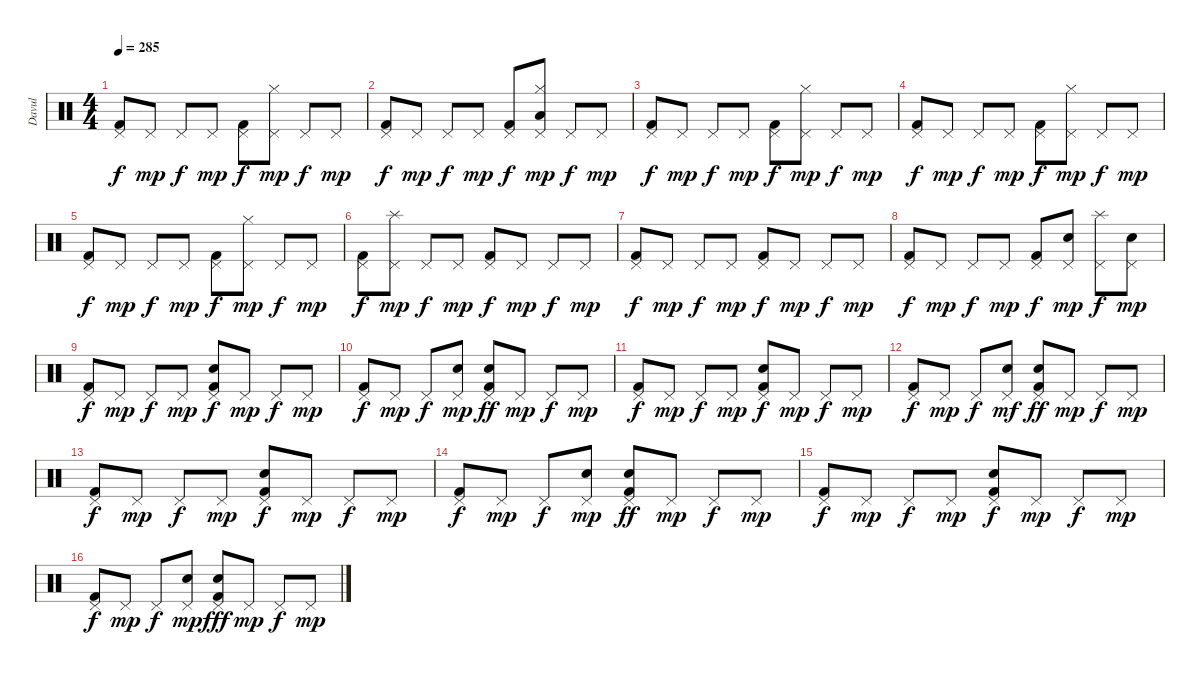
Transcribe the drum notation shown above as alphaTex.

\track ("Davul" "Davul") {instrument percussion}
\staff {score}
\articulation defaults
\ts (4 4)
\tempo 285
\clef neutral
\ks c
("Pedal Hi-Hat (hit)" "Kick (hit) 2").8{dy f} "Pedal Hi-Hat (hit)".8{dy mp} "Pedal Hi-Hat (hit)".8{dy f} "Pedal Hi-Hat (hit)".8{dy mp} ("Pedal Hi-Hat (hit)" "Kick (hit) 2").8{dy f} ("Pedal Hi-Hat (hit)" "Hi-Hat (closed)").8{dy mp} "Pedal Hi-Hat (hit)".8{dy f} "Pedal Hi-Hat (hit)".8{dy mp} |
("Pedal Hi-Hat (hit)" "Kick (hit) 2").8{dy f} "Pedal Hi-Hat (hit)".8{dy mp} "Pedal Hi-Hat (hit)".8{dy f} "Pedal Hi-Hat (hit)".8{dy mp} ("Pedal Hi-Hat (hit)" "Kick (hit) 2").8{dy f} ("Pedal Hi-Hat (hit)" "Hi-Hat (closed)" "Low Floor Tom (hit)").8{dy mp} "Pedal Hi-Hat (hit)".8{dy f} "Pedal Hi-Hat (hit)".8{dy mp} |
("Pedal Hi-Hat (hit)" "Kick (hit) 2").8{dy f} "Pedal Hi-Hat (hit)".8{dy mp} "Pedal Hi-Hat (hit)".8{dy f} "Pedal Hi-Hat (hit)".8{dy mp} ("Pedal Hi-Hat (hit)" "Kick (hit) 2").8{dy f} ("Pedal Hi-Hat (hit)" "Hi-Hat (closed)").8{dy mp} "Pedal Hi-Hat (hit)".8{dy f} "Pedal Hi-Hat (hit)".8{dy mp} |
("Pedal Hi-Hat (hit)" "Kick (hit) 2").8{dy f} "Pedal Hi-Hat (hit)".8{dy mp} "Pedal Hi-Hat (hit)".8{dy f} "Pedal Hi-Hat (hit)".8{dy mp} ("Pedal Hi-Hat (hit)" "Kick (hit) 2").8{dy f} ("Pedal Hi-Hat (hit)" "Hi-Hat (closed)").8{dy mp} "Pedal Hi-Hat (hit)".8{dy f} "Pedal Hi-Hat (hit)".8{dy mp} |
("Pedal Hi-Hat (hit)" "Kick (hit) 2").8{dy f} "Pedal Hi-Hat (hit)".8{dy mp} "Pedal Hi-Hat (hit)".8{dy f} "Pedal Hi-Hat (hit)".8{dy mp} ("Pedal Hi-Hat (hit)" "Kick (hit) 2").8{dy f} ("Pedal Hi-Hat (hit)" "Hi-Hat (closed)").8{dy mp} "Pedal Hi-Hat (hit)".8{dy f} "Pedal Hi-Hat (hit)".8{dy mp} |
("Pedal Hi-Hat (hit)" "Kick (hit) 2").8{dy f} ("Pedal Hi-Hat (hit)" "Splash (hit)").8{dy mp} "Pedal Hi-Hat (hit)".8{dy f} "Pedal Hi-Hat (hit)".8{dy mp} ("Pedal Hi-Hat (hit)" "Kick (hit) 2").8{dy f} "Pedal Hi-Hat (hit)".8{dy mp} "Pedal Hi-Hat (hit)".8{dy f} "Pedal Hi-Hat (hit)".8{dy mp} |
("Pedal Hi-Hat (hit)" "Kick (hit) 2").8{dy f} "Pedal Hi-Hat (hit)".8{dy mp} "Pedal Hi-Hat (hit)".8{dy f} "Pedal Hi-Hat (hit)".8{dy mp} ("Pedal Hi-Hat (hit)" "Kick (hit) 2").8{dy f} "Pedal Hi-Hat (hit)".8{dy mp} "Pedal Hi-Hat (hit)".8{dy f} "Pedal Hi-Hat (hit)".8{dy mp} |
("Pedal Hi-Hat (hit)" "Kick (hit) 2").8{dy f} "Pedal Hi-Hat (hit)".8{dy mp} "Pedal Hi-Hat (hit)".8{dy f} "Pedal Hi-Hat (hit)".8{dy mp} ("Pedal Hi-Hat (hit)" "Kick (hit) 2").8{dy f} ("Pedal Hi-Hat (hit)" "Snare (hit) 2").8{dy mp} ("Pedal Hi-Hat (hit)" "Splash (hit)").8{dy f} ("Pedal Hi-Hat (hit)" "Snare (hit) 2").8{dy mp} |
("Pedal Hi-Hat (hit)" "Kick (hit) 2").8{dy f} "Pedal Hi-Hat (hit)".8{dy mp} "Pedal Hi-Hat (hit)".8{dy f} "Pedal Hi-Hat (hit)".8{dy mp} ("Pedal Hi-Hat (hit)" "Snare (hit) 2" "Kick (hit) 2").8{dy f} "Pedal Hi-Hat (hit)".8{dy mp} "Pedal Hi-Hat (hit)".8{dy f} "Pedal Hi-Hat (hit)".8{dy mp} |
("Pedal Hi-Hat (hit)" "Kick (hit) 2").8{dy f} "Pedal Hi-Hat (hit)".8{dy mp} "Pedal Hi-Hat (hit)".8{dy f} ("Pedal Hi-Hat (hit)" "Snare (hit) 2").8{dy mp} ("Pedal Hi-Hat (hit)" "Snare (hit) 2" "Kick (hit) 2").8{dy ff} "Pedal Hi-Hat (hit)".8{dy mp} "Pedal Hi-Hat (hit)".8{dy f} "Pedal Hi-Hat (hit)".8{dy mp} |
("Pedal Hi-Hat (hit)" "Kick (hit) 2").8{dy f} "Pedal Hi-Hat (hit)".8{dy mp} "Pedal Hi-Hat (hit)".8{dy f} "Pedal Hi-Hat (hit)".8{dy mp} ("Pedal Hi-Hat (hit)" "Snare (hit) 2" "Kick (hit) 2").8{dy f} "Pedal Hi-Hat (hit)".8{dy mp} "Pedal Hi-Hat (hit)".8{dy f} "Pedal Hi-Hat (hit)".8{dy mp} |
("Pedal Hi-Hat (hit)" "Kick (hit) 2").8{dy f} "Pedal Hi-Hat (hit)".8{dy mp} "Pedal Hi-Hat (hit)".8{dy f} ("Pedal Hi-Hat (hit)" "Snare (hit) 2").8{dy mf} ("Pedal Hi-Hat (hit)" "Snare (hit) 2" "Kick (hit) 2").8{dy ff} "Pedal Hi-Hat (hit)".8{dy mp} "Pedal Hi-Hat (hit)".8{dy f} "Pedal Hi-Hat (hit)".8{dy mp} |
("Pedal Hi-Hat (hit)" "Kick (hit) 2").8{dy f} "Pedal Hi-Hat (hit)".8{dy mp} "Pedal Hi-Hat (hit)".8{dy f} "Pedal Hi-Hat (hit)".8{dy mp} ("Pedal Hi-Hat (hit)" "Snare (hit) 2" "Kick (hit) 2").8{dy f} "Pedal Hi-Hat (hit)".8{dy mp} "Pedal Hi-Hat (hit)".8{dy f} "Pedal Hi-Hat (hit)".8{dy mp} |
("Pedal Hi-Hat (hit)" "Kick (hit) 2").8{dy f} "Pedal Hi-Hat (hit)".8{dy mp} "Pedal Hi-Hat (hit)".8{dy f} ("Pedal Hi-Hat (hit)" "Snare (hit) 2").8{dy mp} ("Pedal Hi-Hat (hit)" "Snare (hit) 2" "Kick (hit) 2").8{dy ff} "Pedal Hi-Hat (hit)".8{dy mp} "Pedal Hi-Hat (hit)".8{dy f} "Pedal Hi-Hat (hit)".8{dy mp} |
("Pedal Hi-Hat (hit)" "Kick (hit) 2").8{dy f} "Pedal Hi-Hat (hit)".8{dy mp} "Pedal Hi-Hat (hit)".8{dy f} "Pedal Hi-Hat (hit)".8{dy mp} ("Pedal Hi-Hat (hit)" "Snare (hit) 2" "Kick (hit) 2").8{dy f} "Pedal Hi-Hat (hit)".8{dy mp} "Pedal Hi-Hat (hit)".8{dy f} "Pedal Hi-Hat (hit)".8{dy mp} |
("Pedal Hi-Hat (hit)" "Kick (hit) 2").8{dy f} "Pedal Hi-Hat (hit)".8{dy mp} "Pedal Hi-Hat (hit)".8{dy f} ("Pedal Hi-Hat (hit)" "Snare (hit) 2").8{dy mp} ("Pedal Hi-Hat (hit)" "Snare (hit) 2" "Kick (hit) 2").8{dy fff} "Pedal Hi-Hat (hit)".8{dy mp} "Pedal Hi-Hat (hit)".8{dy f} "Pedal Hi-Hat (hit)".8{dy mp}
